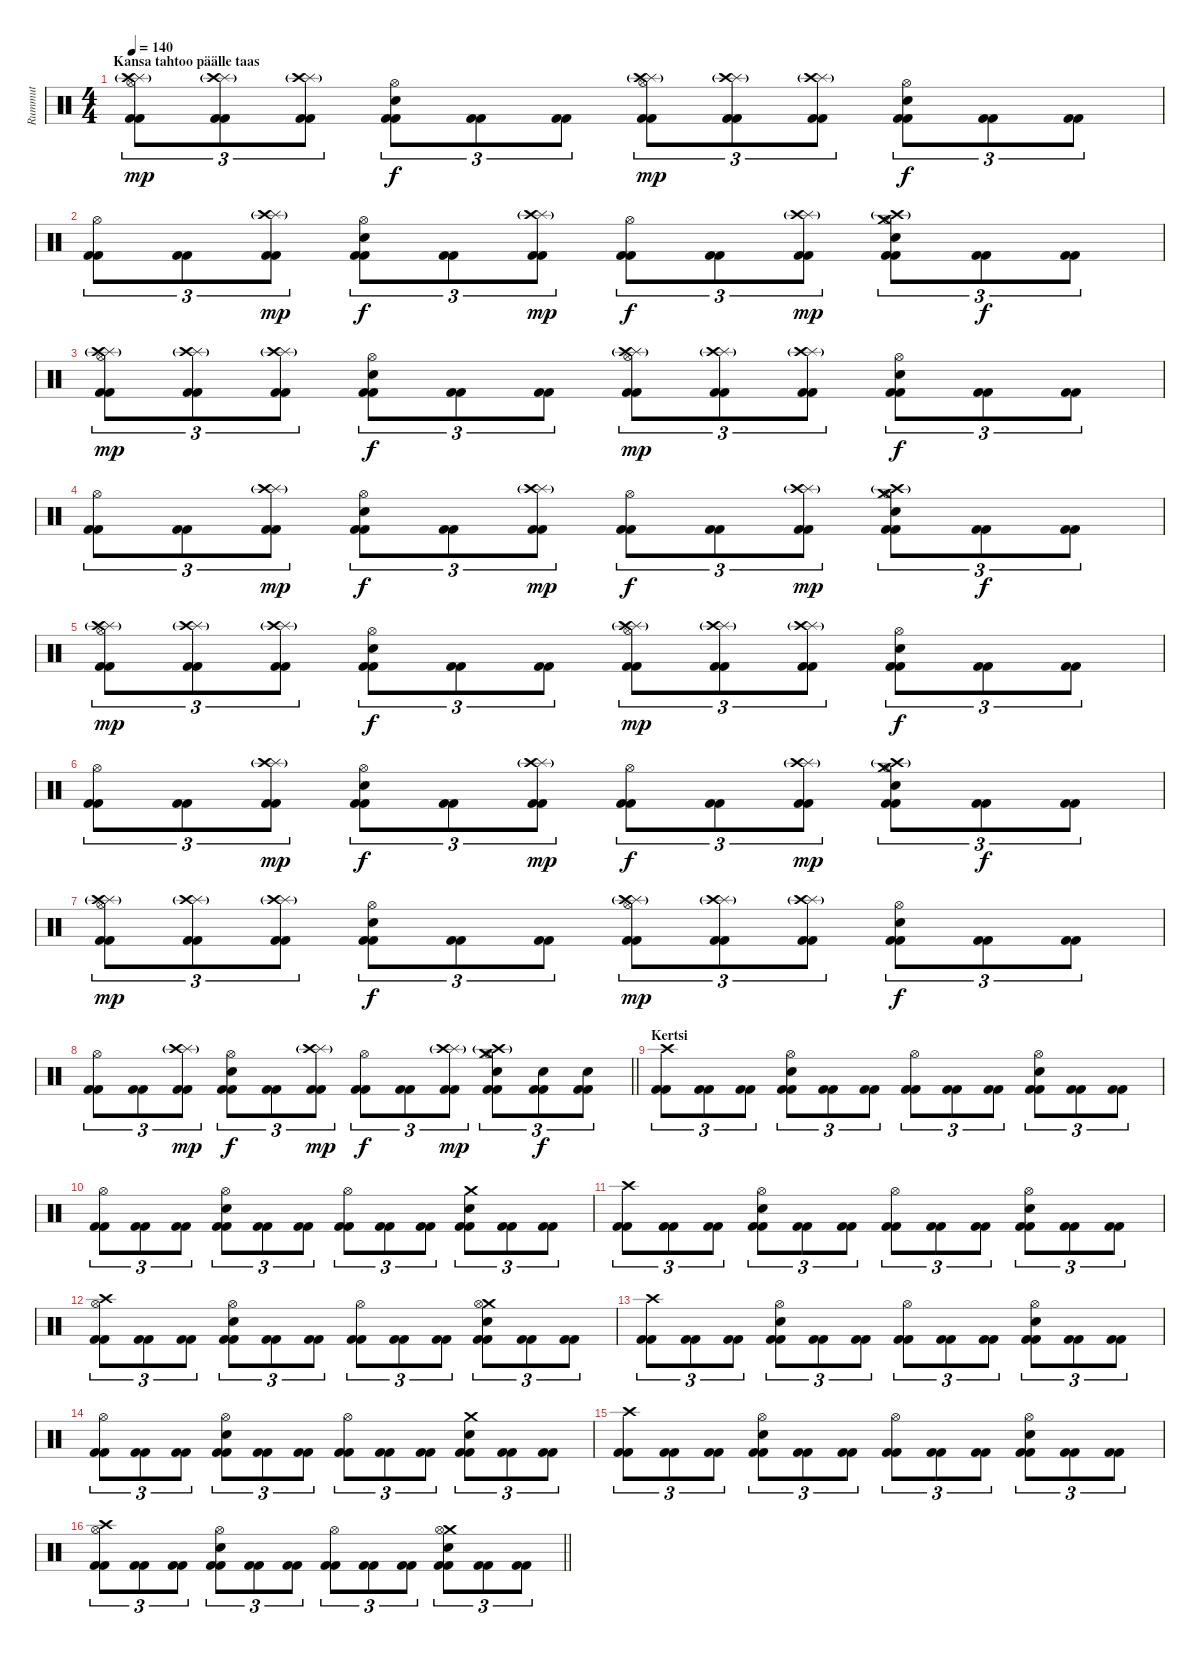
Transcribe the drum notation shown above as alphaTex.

\track ("Rummut" "Rummut") {instrument percussion}
\staff {score}
\articulation defaults
\ts (4 4)
\section ("" "Kansa tahtoo päälle taas")
\tempo 140
\clef neutral
\ks c
("Splash (hit)" "Crash high (hit)"{g} "Hi-Hat (open)" "Kick (hit) 2" "Kick (hit) 2").8{tu (3 2) dy mp} ("Splash (hit)" "Crash high (hit)"{g} "Kick (hit) 2" "Kick (hit) 2").8{tu (3 2)} ("Splash (hit)" "Crash high (hit)"{g} "Kick (hit) 2" "Kick (hit) 2").8{tu (3 2)} ("Hi-Hat (open)" "Electric Snare (hit)" "Kick (hit) 2" "Kick (hit) 2").8{tu (3 2) dy f} ("Kick (hit) 2" "Kick (hit) 2").8{tu (3 2)} ("Kick (hit) 2" "Kick (hit) 2").8{tu (3 2)} ("Splash (hit)" "Crash high (hit)"{g} "Hi-Hat (open)" "Kick (hit) 2" "Kick (hit) 2").8{tu (3 2) dy mp} ("Splash (hit)" "Crash high (hit)"{g} "Kick (hit) 2" "Kick (hit) 2").8{tu (3 2)} ("Splash (hit)" "Crash high (hit)"{g} "Kick (hit) 2" "Kick (hit) 2").8{tu (3 2)} ("Hi-Hat (open)" "Electric Snare (hit)" "Kick (hit) 2" "Kick (hit) 2").8{tu (3 2) dy f} ("Kick (hit) 2" "Kick (hit) 2").8{tu (3 2)} ("Kick (hit) 2" "Kick (hit) 2").8{tu (3 2)} |
("Hi-Hat (open)" "Kick (hit) 2" "Kick (hit) 2").8{tu (3 2)} ("Kick (hit) 2" "Kick (hit) 2").8{tu (3 2)} ("Splash (hit)" "Crash high (hit)"{g} "Kick (hit) 2" "Kick (hit) 2").8{tu (3 2) dy mp} ("Hi-Hat (open)" "Electric Snare (hit)" "Kick (hit) 2" "Kick (hit) 2").8{tu (3 2) dy f} ("Kick (hit) 2" "Kick (hit) 2").8{tu (3 2)} ("Splash (hit)" "Crash high (hit)"{g} "Kick (hit) 2" "Kick (hit) 2").8{tu (3 2) dy mp} ("Hi-Hat (open)" "Kick (hit) 2" "Kick (hit) 2").8{tu (3 2) dy f} ("Kick (hit) 2" "Kick (hit) 2").8{tu (3 2)} ("Splash (hit)" "Crash high (hit)"{g} "Kick (hit) 2" "Kick (hit) 2").8{tu (3 2) dy mp} ("Crash medium (hit)" "Crash high (hit)"{g} "Hi-Hat (open)" "Electric Snare (hit)" "Kick (hit) 2" "Kick (hit) 2").8{tu (3 2)} ("Kick (hit) 2" "Kick (hit) 2").8{tu (3 2) dy f} ("Kick (hit) 2" "Kick (hit) 2").8{tu (3 2)} |
("Splash (hit)" "Crash high (hit)"{g} "Hi-Hat (open)" "Kick (hit) 2" "Kick (hit) 2").8{tu (3 2) dy mp} ("Splash (hit)" "Crash high (hit)"{g} "Kick (hit) 2" "Kick (hit) 2").8{tu (3 2)} ("Splash (hit)" "Crash high (hit)"{g} "Kick (hit) 2" "Kick (hit) 2").8{tu (3 2)} ("Hi-Hat (open)" "Electric Snare (hit)" "Kick (hit) 2" "Kick (hit) 2").8{tu (3 2) dy f} ("Kick (hit) 2" "Kick (hit) 2").8{tu (3 2)} ("Kick (hit) 2" "Kick (hit) 2").8{tu (3 2)} ("Splash (hit)" "Crash high (hit)"{g} "Hi-Hat (open)" "Kick (hit) 2" "Kick (hit) 2").8{tu (3 2) dy mp} ("Splash (hit)" "Crash high (hit)"{g} "Kick (hit) 2" "Kick (hit) 2").8{tu (3 2)} ("Splash (hit)" "Crash high (hit)"{g} "Kick (hit) 2" "Kick (hit) 2").8{tu (3 2)} ("Hi-Hat (open)" "Electric Snare (hit)" "Kick (hit) 2" "Kick (hit) 2").8{tu (3 2) dy f} ("Kick (hit) 2" "Kick (hit) 2").8{tu (3 2)} ("Kick (hit) 2" "Kick (hit) 2").8{tu (3 2)} |
("Hi-Hat (open)" "Kick (hit) 2" "Kick (hit) 2").8{tu (3 2)} ("Kick (hit) 2" "Kick (hit) 2").8{tu (3 2)} ("Splash (hit)" "Crash high (hit)"{g} "Kick (hit) 2" "Kick (hit) 2").8{tu (3 2) dy mp} ("Hi-Hat (open)" "Electric Snare (hit)" "Kick (hit) 2" "Kick (hit) 2").8{tu (3 2) dy f} ("Kick (hit) 2" "Kick (hit) 2").8{tu (3 2)} ("Splash (hit)" "Crash high (hit)"{g} "Kick (hit) 2" "Kick (hit) 2").8{tu (3 2) dy mp} ("Hi-Hat (open)" "Kick (hit) 2" "Kick (hit) 2").8{tu (3 2) dy f} ("Kick (hit) 2" "Kick (hit) 2").8{tu (3 2)} ("Splash (hit)" "Crash high (hit)"{g} "Kick (hit) 2" "Kick (hit) 2").8{tu (3 2) dy mp} ("Crash medium (hit)" "Crash high (hit)"{g} "Hi-Hat (open)" "Electric Snare (hit)" "Kick (hit) 2" "Kick (hit) 2").8{tu (3 2)} ("Kick (hit) 2" "Kick (hit) 2").8{tu (3 2) dy f} ("Kick (hit) 2" "Kick (hit) 2").8{tu (3 2)} |
("Splash (hit)" "Crash high (hit)"{g} "Hi-Hat (open)" "Kick (hit) 2" "Kick (hit) 2").8{tu (3 2) dy mp} ("Splash (hit)" "Crash high (hit)"{g} "Kick (hit) 2" "Kick (hit) 2").8{tu (3 2)} ("Splash (hit)" "Crash high (hit)"{g} "Kick (hit) 2" "Kick (hit) 2").8{tu (3 2)} ("Hi-Hat (open)" "Electric Snare (hit)" "Kick (hit) 2" "Kick (hit) 2").8{tu (3 2) dy f} ("Kick (hit) 2" "Kick (hit) 2").8{tu (3 2)} ("Kick (hit) 2" "Kick (hit) 2").8{tu (3 2)} ("Splash (hit)" "Crash high (hit)"{g} "Hi-Hat (open)" "Kick (hit) 2" "Kick (hit) 2").8{tu (3 2) dy mp} ("Splash (hit)" "Crash high (hit)"{g} "Kick (hit) 2" "Kick (hit) 2").8{tu (3 2)} ("Splash (hit)" "Crash high (hit)"{g} "Kick (hit) 2" "Kick (hit) 2").8{tu (3 2)} ("Hi-Hat (open)" "Electric Snare (hit)" "Kick (hit) 2" "Kick (hit) 2").8{tu (3 2) dy f} ("Kick (hit) 2" "Kick (hit) 2").8{tu (3 2)} ("Kick (hit) 2" "Kick (hit) 2").8{tu (3 2)} |
("Hi-Hat (open)" "Kick (hit) 2" "Kick (hit) 2").8{tu (3 2)} ("Kick (hit) 2" "Kick (hit) 2").8{tu (3 2)} ("Splash (hit)" "Crash high (hit)"{g} "Kick (hit) 2" "Kick (hit) 2").8{tu (3 2) dy mp} ("Hi-Hat (open)" "Electric Snare (hit)" "Kick (hit) 2" "Kick (hit) 2").8{tu (3 2) dy f} ("Kick (hit) 2" "Kick (hit) 2").8{tu (3 2)} ("Splash (hit)" "Crash high (hit)"{g} "Kick (hit) 2" "Kick (hit) 2").8{tu (3 2) dy mp} ("Hi-Hat (open)" "Kick (hit) 2" "Kick (hit) 2").8{tu (3 2) dy f} ("Kick (hit) 2" "Kick (hit) 2").8{tu (3 2)} ("Splash (hit)" "Crash high (hit)"{g} "Kick (hit) 2" "Kick (hit) 2").8{tu (3 2) dy mp} ("Crash medium (hit)" "Crash high (hit)"{g} "Hi-Hat (open)" "Electric Snare (hit)" "Kick (hit) 2" "Kick (hit) 2").8{tu (3 2)} ("Kick (hit) 2" "Kick (hit) 2").8{tu (3 2) dy f} ("Kick (hit) 2" "Kick (hit) 2").8{tu (3 2)} |
("Splash (hit)" "Crash high (hit)"{g} "Hi-Hat (open)" "Kick (hit) 2" "Kick (hit) 2").8{tu (3 2) dy mp} ("Splash (hit)" "Crash high (hit)"{g} "Kick (hit) 2" "Kick (hit) 2").8{tu (3 2)} ("Splash (hit)" "Crash high (hit)"{g} "Kick (hit) 2" "Kick (hit) 2").8{tu (3 2)} ("Hi-Hat (open)" "Electric Snare (hit)" "Kick (hit) 2" "Kick (hit) 2").8{tu (3 2) dy f} ("Kick (hit) 2" "Kick (hit) 2").8{tu (3 2)} ("Kick (hit) 2" "Kick (hit) 2").8{tu (3 2)} ("Splash (hit)" "Crash high (hit)"{g} "Hi-Hat (open)" "Kick (hit) 2" "Kick (hit) 2").8{tu (3 2) dy mp} ("Splash (hit)" "Crash high (hit)"{g} "Kick (hit) 2" "Kick (hit) 2").8{tu (3 2)} ("Splash (hit)" "Crash high (hit)"{g} "Kick (hit) 2" "Kick (hit) 2").8{tu (3 2)} ("Hi-Hat (open)" "Electric Snare (hit)" "Kick (hit) 2" "Kick (hit) 2").8{tu (3 2) dy f} ("Kick (hit) 2" "Kick (hit) 2").8{tu (3 2)} ("Kick (hit) 2" "Kick (hit) 2").8{tu (3 2)} |
\barLineRight lightlight
("Hi-Hat (open)" "Kick (hit) 2" "Kick (hit) 2").8{tu (3 2)} ("Kick (hit) 2" "Kick (hit) 2").8{tu (3 2)} ("Splash (hit)" "Crash high (hit)"{g} "Kick (hit) 2" "Kick (hit) 2").8{tu (3 2) dy mp} ("Hi-Hat (open)" "Electric Snare (hit)" "Kick (hit) 2" "Kick (hit) 2").8{tu (3 2) dy f} ("Kick (hit) 2" "Kick (hit) 2").8{tu (3 2)} ("Splash (hit)" "Crash high (hit)"{g} "Kick (hit) 2" "Kick (hit) 2").8{tu (3 2) dy mp} ("Hi-Hat (open)" "Kick (hit) 2" "Kick (hit) 2").8{tu (3 2) dy f} ("Kick (hit) 2" "Kick (hit) 2").8{tu (3 2)} ("Splash (hit)" "Crash high (hit)"{g} "Kick (hit) 2" "Kick (hit) 2").8{tu (3 2) dy mp} ("Crash medium (hit)" "Crash high (hit)"{g} "Hi-Hat (open)" "Electric Snare (hit)" "Kick (hit) 2" "Kick (hit) 2").8{tu (3 2)} ("Electric Snare (hit)" "Kick (hit) 2" "Kick (hit) 2").8{tu (3 2) dy f} ("Electric Snare (hit)" "Kick (hit) 2" "Kick (hit) 2").8{tu (3 2)} |
\section ("" "Kertsi")
("Crash high (hit)" "Kick (hit) 2" "Kick (hit) 2").8{tu (3 2)} ("Kick (hit) 2" "Kick (hit) 2").8{tu (3 2)} ("Kick (hit) 2" "Kick (hit) 2").8{tu (3 2)} ("Hi-Hat (open)" "Electric Snare (hit)" "Kick (hit) 2" "Kick (hit) 2").8{tu (3 2)} ("Kick (hit) 2" "Kick (hit) 2").8{tu (3 2)} ("Kick (hit) 2" "Kick (hit) 2").8{tu (3 2)} ("Hi-Hat (open)" "Kick (hit) 2" "Kick (hit) 2").8{tu (3 2)} ("Kick (hit) 2" "Kick (hit) 2").8{tu (3 2)} ("Kick (hit) 2" "Kick (hit) 2").8{tu (3 2)} ("Hi-Hat (open)" "Electric Snare (hit)" "Kick (hit) 2" "Kick (hit) 2").8{tu (3 2)} ("Kick (hit) 2" "Kick (hit) 2").8{tu (3 2)} ("Kick (hit) 2" "Kick (hit) 2").8{tu (3 2)} |
("Hi-Hat (open)" "Kick (hit) 2" "Kick (hit) 2").8{tu (3 2)} ("Kick (hit) 2" "Kick (hit) 2").8{tu (3 2)} ("Kick (hit) 2" "Kick (hit) 2").8{tu (3 2)} ("Hi-Hat (open)" "Electric Snare (hit)" "Kick (hit) 2" "Kick (hit) 2").8{tu (3 2)} ("Kick (hit) 2" "Kick (hit) 2").8{tu (3 2)} ("Kick (hit) 2" "Kick (hit) 2").8{tu (3 2)} ("Hi-Hat (open)" "Kick (hit) 2" "Kick (hit) 2").8{tu (3 2)} ("Kick (hit) 2" "Kick (hit) 2").8{tu (3 2)} ("Kick (hit) 2" "Kick (hit) 2").8{tu (3 2)} ("Crash medium (hit)" "Electric Snare (hit)" "Kick (hit) 2" "Kick (hit) 2").8{tu (3 2)} ("Kick (hit) 2" "Kick (hit) 2").8{tu (3 2)} ("Kick (hit) 2" "Kick (hit) 2").8{tu (3 2)} |
("Crash high (hit)" "Kick (hit) 2" "Kick (hit) 2").8{tu (3 2)} ("Kick (hit) 2" "Kick (hit) 2").8{tu (3 2)} ("Kick (hit) 2" "Kick (hit) 2").8{tu (3 2)} ("Hi-Hat (open)" "Electric Snare (hit)" "Kick (hit) 2" "Kick (hit) 2").8{tu (3 2)} ("Kick (hit) 2" "Kick (hit) 2").8{tu (3 2)} ("Kick (hit) 2" "Kick (hit) 2").8{tu (3 2)} ("Hi-Hat (open)" "Kick (hit) 2" "Kick (hit) 2").8{tu (3 2)} ("Kick (hit) 2" "Kick (hit) 2").8{tu (3 2)} ("Kick (hit) 2" "Kick (hit) 2").8{tu (3 2)} ("Hi-Hat (open)" "Electric Snare (hit)" "Kick (hit) 2" "Kick (hit) 2").8{tu (3 2)} ("Kick (hit) 2" "Kick (hit) 2").8{tu (3 2)} ("Kick (hit) 2" "Kick (hit) 2").8{tu (3 2)} |
("Crash high (hit)" "Hi-Hat (open)" "Kick (hit) 2" "Kick (hit) 2").8{tu (3 2)} ("Kick (hit) 2" "Kick (hit) 2").8{tu (3 2)} ("Kick (hit) 2" "Kick (hit) 2").8{tu (3 2)} ("Hi-Hat (open)" "Electric Snare (hit)" "Kick (hit) 2" "Kick (hit) 2").8{tu (3 2)} ("Kick (hit) 2" "Kick (hit) 2").8{tu (3 2)} ("Kick (hit) 2" "Kick (hit) 2").8{tu (3 2)} ("Hi-Hat (open)" "Kick (hit) 2" "Kick (hit) 2").8{tu (3 2)} ("Kick (hit) 2" "Kick (hit) 2").8{tu (3 2)} ("Kick (hit) 2" "Kick (hit) 2").8{tu (3 2)} ("Crash medium (hit)" "Hi-Hat (open)" "Electric Snare (hit)" "Kick (hit) 2" "Kick (hit) 2").8{tu (3 2)} ("Kick (hit) 2" "Kick (hit) 2").8{tu (3 2)} ("Kick (hit) 2" "Kick (hit) 2").8{tu (3 2)} |
("Crash high (hit)" "Kick (hit) 2" "Kick (hit) 2").8{tu (3 2)} ("Kick (hit) 2" "Kick (hit) 2").8{tu (3 2)} ("Kick (hit) 2" "Kick (hit) 2").8{tu (3 2)} ("Hi-Hat (open)" "Electric Snare (hit)" "Kick (hit) 2" "Kick (hit) 2").8{tu (3 2)} ("Kick (hit) 2" "Kick (hit) 2").8{tu (3 2)} ("Kick (hit) 2" "Kick (hit) 2").8{tu (3 2)} ("Hi-Hat (open)" "Kick (hit) 2" "Kick (hit) 2").8{tu (3 2)} ("Kick (hit) 2" "Kick (hit) 2").8{tu (3 2)} ("Kick (hit) 2" "Kick (hit) 2").8{tu (3 2)} ("Hi-Hat (open)" "Electric Snare (hit)" "Kick (hit) 2" "Kick (hit) 2").8{tu (3 2)} ("Kick (hit) 2" "Kick (hit) 2").8{tu (3 2)} ("Kick (hit) 2" "Kick (hit) 2").8{tu (3 2)} |
("Hi-Hat (open)" "Kick (hit) 2" "Kick (hit) 2").8{tu (3 2)} ("Kick (hit) 2" "Kick (hit) 2").8{tu (3 2)} ("Kick (hit) 2" "Kick (hit) 2").8{tu (3 2)} ("Hi-Hat (open)" "Electric Snare (hit)" "Kick (hit) 2" "Kick (hit) 2").8{tu (3 2)} ("Kick (hit) 2" "Kick (hit) 2").8{tu (3 2)} ("Kick (hit) 2" "Kick (hit) 2").8{tu (3 2)} ("Hi-Hat (open)" "Kick (hit) 2" "Kick (hit) 2").8{tu (3 2)} ("Kick (hit) 2" "Kick (hit) 2").8{tu (3 2)} ("Kick (hit) 2" "Kick (hit) 2").8{tu (3 2)} ("Crash medium (hit)" "Electric Snare (hit)" "Kick (hit) 2" "Kick (hit) 2").8{tu (3 2)} ("Kick (hit) 2" "Kick (hit) 2").8{tu (3 2)} ("Kick (hit) 2" "Kick (hit) 2").8{tu (3 2)} |
("Crash high (hit)" "Kick (hit) 2" "Kick (hit) 2").8{tu (3 2)} ("Kick (hit) 2" "Kick (hit) 2").8{tu (3 2)} ("Kick (hit) 2" "Kick (hit) 2").8{tu (3 2)} ("Hi-Hat (open)" "Electric Snare (hit)" "Kick (hit) 2" "Kick (hit) 2").8{tu (3 2)} ("Kick (hit) 2" "Kick (hit) 2").8{tu (3 2)} ("Kick (hit) 2" "Kick (hit) 2").8{tu (3 2)} ("Hi-Hat (open)" "Kick (hit) 2" "Kick (hit) 2").8{tu (3 2)} ("Kick (hit) 2" "Kick (hit) 2").8{tu (3 2)} ("Kick (hit) 2" "Kick (hit) 2").8{tu (3 2)} ("Hi-Hat (open)" "Electric Snare (hit)" "Kick (hit) 2" "Kick (hit) 2").8{tu (3 2)} ("Kick (hit) 2" "Kick (hit) 2").8{tu (3 2)} ("Kick (hit) 2" "Kick (hit) 2").8{tu (3 2)} |
\barLineRight lightlight
("Crash high (hit)" "Hi-Hat (open)" "Kick (hit) 2" "Kick (hit) 2").8{tu (3 2)} ("Kick (hit) 2" "Kick (hit) 2").8{tu (3 2)} ("Kick (hit) 2" "Kick (hit) 2").8{tu (3 2)} ("Hi-Hat (open)" "Electric Snare (hit)" "Kick (hit) 2" "Kick (hit) 2").8{tu (3 2)} ("Kick (hit) 2" "Kick (hit) 2").8{tu (3 2)} ("Kick (hit) 2" "Kick (hit) 2").8{tu (3 2)} ("Hi-Hat (open)" "Kick (hit) 2" "Kick (hit) 2").8{tu (3 2)} ("Kick (hit) 2" "Kick (hit) 2").8{tu (3 2)} ("Kick (hit) 2" "Kick (hit) 2").8{tu (3 2)} ("Crash medium (hit)" "Hi-Hat (open)" "Electric Snare (hit)" "Kick (hit) 2" "Kick (hit) 2").8{tu (3 2)} ("Kick (hit) 2" "Kick (hit) 2").8{tu (3 2)} ("Kick (hit) 2" "Kick (hit) 2").8{tu (3 2)}
